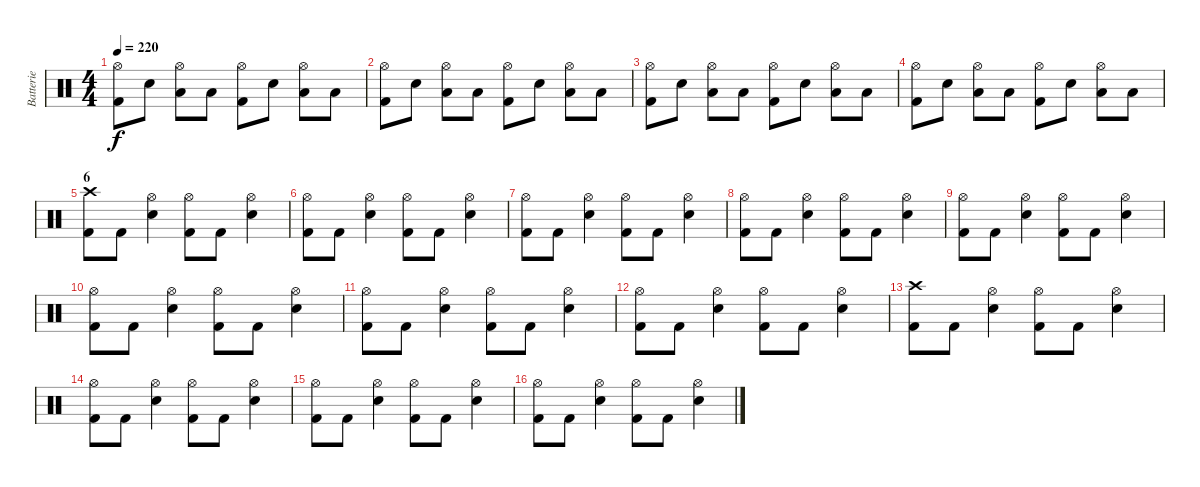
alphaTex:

\track ("Batterie" "Batterie") {instrument percussion}
\staff {score}
\articulation defaults
\ts (4 4)
\tempo 220
\clef neutral
\ks c
("Hi-Hat (open)" "Kick (hit) 2").8{dy f} "Electric Snare (hit)".8 ("Hi-Hat (open)" "Low Tom (hit)").8 "Low Floor Tom (hit)".8 ("Hi-Hat (open)" "Kick (hit) 2").8 "Electric Snare (hit)".8 ("Hi-Hat (open)" "Low Tom (hit)").8 "Low Floor Tom (hit)".8 |
("Hi-Hat (open)" "Kick (hit) 2").8 "Electric Snare (hit)".8 ("Hi-Hat (open)" "Low Tom (hit)").8 "Low Floor Tom (hit)".8 ("Hi-Hat (open)" "Kick (hit) 2").8 "Electric Snare (hit)".8 ("Hi-Hat (open)" "Low Tom (hit)").8 "Low Floor Tom (hit)".8 |
("Hi-Hat (open)" "Kick (hit) 2").8 "Electric Snare (hit)".8 ("Hi-Hat (open)" "Low Tom (hit)").8 "Low Floor Tom (hit)".8 ("Hi-Hat (open)" "Kick (hit) 2").8 "Electric Snare (hit)".8 ("Hi-Hat (open)" "Low Tom (hit)").8 "Low Floor Tom (hit)".8 |
("Hi-Hat (open)" "Kick (hit) 2").8 "Electric Snare (hit)".8 ("Hi-Hat (open)" "Low Tom (hit)").8 "Low Floor Tom (hit)".8 ("Hi-Hat (open)" "Kick (hit) 2").8 "Electric Snare (hit)".8 ("Hi-Hat (open)" "Low Tom (hit)").8 "Low Floor Tom (hit)".8 |
\section ("" "6")
("Crash high (hit)" "Kick (hit) 2").8 "Kick (hit) 2".8 ("Hi-Hat (open)" "Electric Snare (hit)").4 ("Hi-Hat (open)" "Kick (hit) 2").8 "Kick (hit) 2".8 ("Hi-Hat (open)" "Electric Snare (hit)").4 |
("Hi-Hat (open)" "Kick (hit) 2").8 "Kick (hit) 2".8 ("Hi-Hat (open)" "Electric Snare (hit)").4 ("Hi-Hat (open)" "Kick (hit) 2").8 "Kick (hit) 2".8 ("Hi-Hat (open)" "Electric Snare (hit)").4 |
("Hi-Hat (open)" "Kick (hit) 2").8 "Kick (hit) 2".8 ("Hi-Hat (open)" "Electric Snare (hit)").4 ("Hi-Hat (open)" "Kick (hit) 2").8 "Kick (hit) 2".8 ("Hi-Hat (open)" "Electric Snare (hit)").4 |
("Hi-Hat (open)" "Kick (hit) 2").8 "Kick (hit) 2".8 ("Hi-Hat (open)" "Electric Snare (hit)").4 ("Hi-Hat (open)" "Kick (hit) 2").8 "Kick (hit) 2".8 ("Hi-Hat (open)" "Electric Snare (hit)").4 |
("Hi-Hat (open)" "Kick (hit) 2").8 "Kick (hit) 2".8 ("Hi-Hat (open)" "Electric Snare (hit)").4 ("Hi-Hat (open)" "Kick (hit) 2").8 "Kick (hit) 2".8 ("Hi-Hat (open)" "Electric Snare (hit)").4 |
("Hi-Hat (open)" "Kick (hit) 2").8 "Kick (hit) 2".8 ("Hi-Hat (open)" "Electric Snare (hit)").4 ("Hi-Hat (open)" "Kick (hit) 2").8 "Kick (hit) 2".8 ("Hi-Hat (open)" "Electric Snare (hit)").4 |
("Hi-Hat (open)" "Kick (hit) 2").8 "Kick (hit) 2".8 ("Hi-Hat (open)" "Electric Snare (hit)").4 ("Hi-Hat (open)" "Kick (hit) 2").8 "Kick (hit) 2".8 ("Hi-Hat (open)" "Electric Snare (hit)").4 |
("Hi-Hat (open)" "Kick (hit) 2").8 "Kick (hit) 2".8 ("Hi-Hat (open)" "Electric Snare (hit)").4 ("Hi-Hat (open)" "Kick (hit) 2").8 "Kick (hit) 2".8 ("Hi-Hat (open)" "Electric Snare (hit)").4 |
("Crash high (hit)" "Kick (hit) 2").8 "Kick (hit) 2".8 ("Hi-Hat (open)" "Electric Snare (hit)").4 ("Hi-Hat (open)" "Kick (hit) 2").8 "Kick (hit) 2".8 ("Hi-Hat (open)" "Electric Snare (hit)").4 |
("Hi-Hat (open)" "Kick (hit) 2").8 "Kick (hit) 2".8 ("Hi-Hat (open)" "Electric Snare (hit)").4 ("Hi-Hat (open)" "Kick (hit) 2").8 "Kick (hit) 2".8 ("Hi-Hat (open)" "Electric Snare (hit)").4 |
("Hi-Hat (open)" "Kick (hit) 2").8 "Kick (hit) 2".8 ("Hi-Hat (open)" "Electric Snare (hit)").4 ("Hi-Hat (open)" "Kick (hit) 2").8 "Kick (hit) 2".8 ("Hi-Hat (open)" "Electric Snare (hit)").4 |
("Hi-Hat (open)" "Kick (hit) 2").8 "Kick (hit) 2".8 ("Hi-Hat (open)" "Electric Snare (hit)").4 ("Hi-Hat (open)" "Kick (hit) 2").8 "Kick (hit) 2".8 ("Hi-Hat (open)" "Electric Snare (hit)").4
